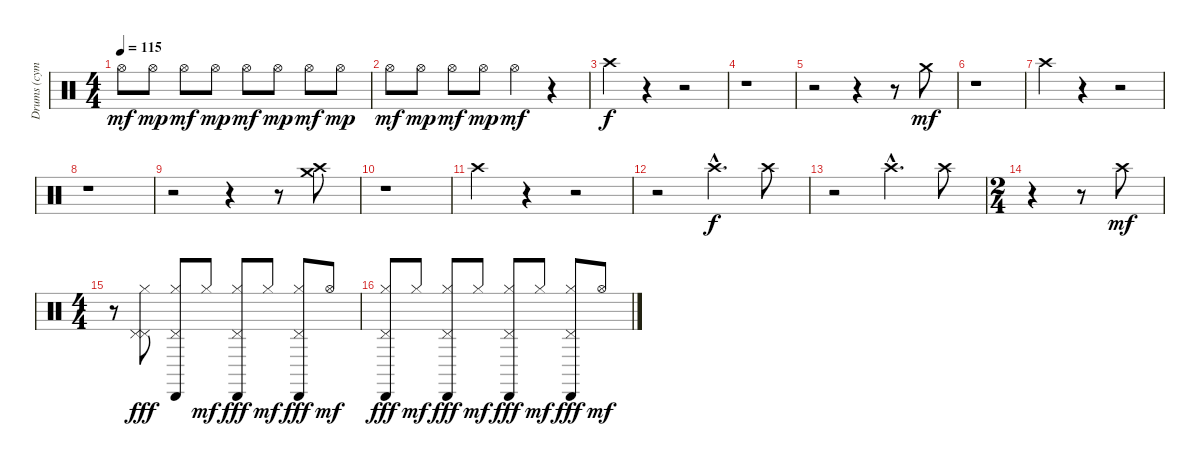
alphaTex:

\track ("Drums (cymbals)" "Drums (cym") {instrument percussion}
\staff {score}
\articulation defaults
\ts (4 4)
\tempo 115
\clef neutral
\ks c "Hi-Hat (open)".8{dy mf} "Hi-Hat (open)".8{dy mp} "Hi-Hat (open)".8{dy mf} "Hi-Hat (open)".8{dy mp} "Hi-Hat (open)".8{dy mf} "Hi-Hat (open)".8{dy mp} "Hi-Hat (open)".8{dy mf} "Hi-Hat (open)".8{dy mp}
|
"Hi-Hat (open)".8{dy mf} "Hi-Hat (open)".8{dy mp} "Hi-Hat (open)".8{dy mf} "Hi-Hat (open)".8{dy mp} "Hi-Hat (open)".4{dy mf} r.4 |
"Crash high (hit)".4{dy f} r.4 r.2 |
r.1 |
r.2 r.4 r.8 "Crash medium (hit)".8{dy mf} |
r.1 |
"Crash high (hit)".4 r.4 r.2 |
r.1 |
r.2 r.4 r.8 ("Crash medium (hit)" "Crash high (hit)").8 |
r.1 |
"Crash high (hit)".4 r.4 r.2 |
r.2 "Crash high (hit)"{hac}.4{d dy f} "Crash high (hit)".8 |
r.2 "Crash high (hit)"{hac}.4{d} "Crash high (hit)".8 |
\ts (2 4)
r.4 r.8 "Crash high (hit)".8{dy mf} |
\ts (4 4)
r.8 ("Hi-Hat (closed)" "Pedal Hi-Hat (hit)" "Pedal Hi-Hat (hit)").8{dy fff} ("Hi-Hat (closed)" "Pedal Hi-Hat (hit)" "Cabasa (hit)").8 "Hi-Hat (closed)".8{dy mf} ("Hi-Hat (closed)" "Pedal Hi-Hat (hit)" "Cabasa (hit)").8{dy fff} "Hi-Hat (closed)".8{dy mf} ("Hi-Hat (closed)" "Pedal Hi-Hat (hit)" "Cabasa (hit)").8{dy fff} "Hi-Hat (open)".8{dy mf} |
("Hi-Hat (closed)" "Pedal Hi-Hat (hit)" "Cabasa (hit)").8{dy fff} "Hi-Hat (closed)".8{dy mf} ("Hi-Hat (closed)" "Pedal Hi-Hat (hit)" "Cabasa (hit)").8{dy fff} "Hi-Hat (closed)".8{dy mf} ("Hi-Hat (closed)" "Pedal Hi-Hat (hit)" "Cabasa (hit)").8{dy fff} "Hi-Hat (closed)".8{dy mf} ("Hi-Hat (closed)" "Pedal Hi-Hat (hit)" "Cabasa (hit)").8{dy fff} "Hi-Hat (open)".8{dy mf}
